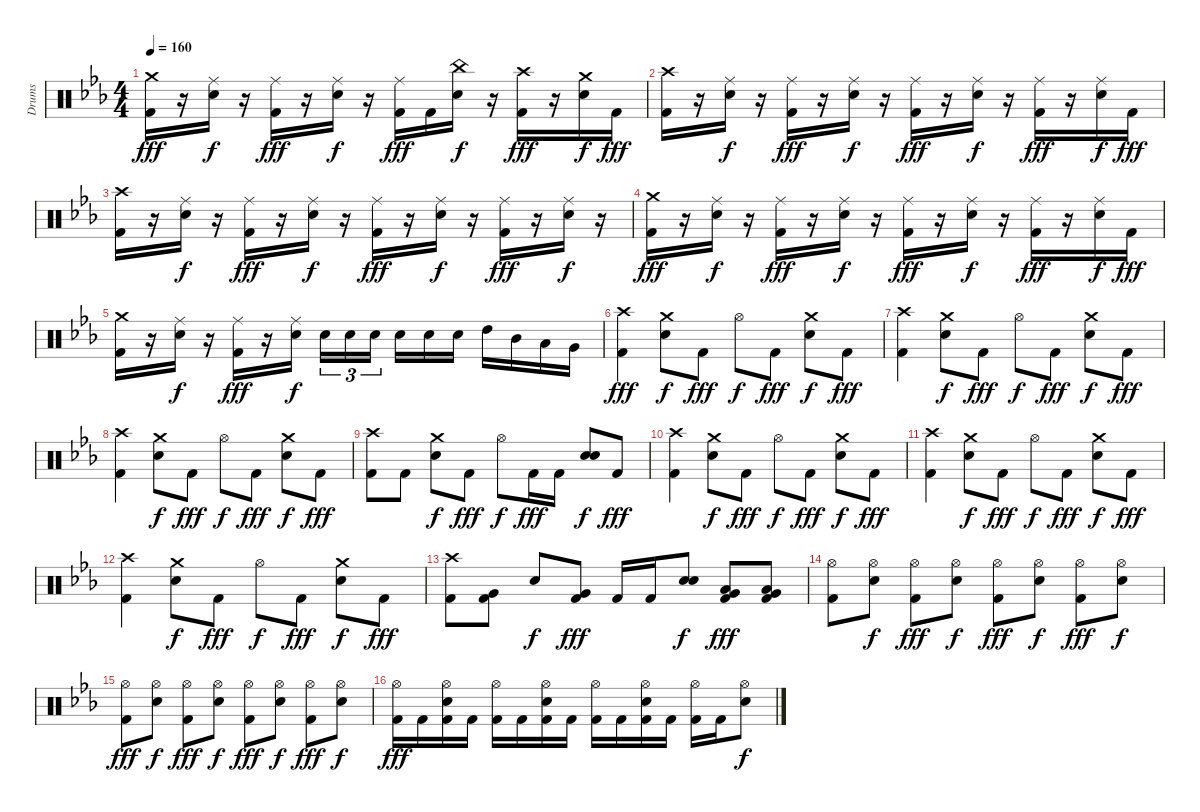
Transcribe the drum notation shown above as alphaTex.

\track ("Drums" "Drums") {instrument percussion}
\staff {score}
\articulation defaults
\ts (4 4)
\tempo 160
\clef neutral
\ks eb
("Crash medium (hit)" "Kick (hit) 2").16{dy fff} r.16 ("Ride (middle)" "Electric Snare (hit)").16{dy f} r.16 ("Ride (middle)" "Kick (hit) 2").16{dy fff} r.16 ("Ride (middle)" "Electric Snare (hit)").16{dy f} r.16 ("Ride (middle)" "Kick (hit) 2").16{dy fff} "Kick (hit) 2".16 ("China (hit)" "Electric Snare (hit)").16{dy f} r.16 ("Crash high (hit)" "Kick (hit) 2").16{dy fff} r.16 ("Crash medium (hit)" "Electric Snare (hit)").16{dy f} "Kick (hit) 2".16{dy fff} |
("Crash high (hit)" "Kick (hit) 2").16 r.16 ("Ride (middle)" "Electric Snare (hit)").16{dy f} r.16 ("Ride (middle)" "Kick (hit) 2").16{dy fff} r.16 ("Ride (middle)" "Electric Snare (hit)").16{dy f} r.16 ("Ride (middle)" "Kick (hit) 2").16{dy fff} r.16 ("Ride (middle)" "Electric Snare (hit)").16{dy f} r.16 ("Ride (middle)" "Kick (hit) 2").16{dy fff} r.16 ("Ride (middle)" "Electric Snare (hit)").16{dy f} "Kick (hit) 2".16{dy fff} |
("Crash high (hit)" "Kick (hit) 2").16 r.16 ("Ride (middle)" "Electric Snare (hit)").16{dy f} r.16 ("Ride (middle)" "Kick (hit) 2").16{dy fff} r.16 ("Ride (middle)" "Electric Snare (hit)").16{dy f} r.16 ("Ride (middle)" "Kick (hit) 2").16{dy fff} r.16 ("Ride (middle)" "Electric Snare (hit)").16{dy f} r.16 ("Ride (middle)" "Kick (hit) 2").16{dy fff} r.16 ("Ride (middle)" "Electric Snare (hit)").16{dy f} r.16 |
("Crash medium (hit)" "Kick (hit) 2").16{dy fff} r.16 ("Ride (middle)" "Electric Snare (hit)").16{dy f} r.16 ("Ride (middle)" "Kick (hit) 2").16{dy fff} r.16 ("Ride (middle)" "Electric Snare (hit)").16{dy f} r.16 ("Ride (middle)" "Kick (hit) 2").16{dy fff} r.16 ("Ride (middle)" "Electric Snare (hit)").16{dy f} r.16 ("Ride (middle)" "Kick (hit) 2").16{dy fff} r.16 ("Ride (middle)" "Electric Snare (hit)").16{dy f} "Kick (hit) 2".16{dy fff} |
("Crash medium (hit)" "Kick (hit) 2").16 r.16 ("Ride (middle)" "Electric Snare (hit)").16{dy f} r.16 ("Ride (middle)" "Kick (hit) 2").16{dy fff} r.16 ("Ride (middle)" "Electric Snare (hit)").16{dy f} "Electric Snare (hit)".16{tu (3 2)} "Electric Snare (hit)".16{tu (3 2)} "Electric Snare (hit)".16{tu (3 2)} "Electric Snare (hit)".16 "Electric Snare (hit)".16 "Electric Snare (hit)".16 "High Tom (hit)".16 "Mid Tom (hit)".16 "Low Tom (hit)".16 "Very Low Tom (hit)".16 |
("Crash high (hit)" "Kick (hit) 2").4{dy fff} ("Crash medium (hit)" "Electric Snare (hit)").8{dy f} "Kick (hit) 2".8{dy fff} "Hi-Hat (open)".8{dy f} "Kick (hit) 2".8{dy fff} ("Crash medium (hit)" "Electric Snare (hit)").8{dy f} "Kick (hit) 2".8{dy fff} |
("Crash high (hit)" "Kick (hit) 2").4 ("Crash medium (hit)" "Electric Snare (hit)").8{dy f} "Kick (hit) 2".8{dy fff} "Hi-Hat (open)".8{dy f} "Kick (hit) 2".8{dy fff} ("Crash medium (hit)" "Electric Snare (hit)").8{dy f} "Kick (hit) 2".8{dy fff} |
("Crash high (hit)" "Kick (hit) 2").4 ("Crash medium (hit)" "Electric Snare (hit)").8{dy f} "Kick (hit) 2".8{dy fff} "Hi-Hat (open)".8{dy f} "Kick (hit) 2".8{dy fff} ("Crash medium (hit)" "Electric Snare (hit)").8{dy f} "Kick (hit) 2".8{dy fff} |
("Crash high (hit)" "Kick (hit) 2").8 "Kick (hit) 2".8 ("Crash medium (hit)" "Electric Snare (hit)").8{dy f} "Kick (hit) 2".8{dy fff} "Hi-Hat (open)".8{dy f} "Kick (hit) 2".16{dy fff} "Kick (hit) 2".16 ("Electric Snare (hit)" "Electric Snare (hit)").8{bd 60 dy f} "Kick (hit) 2".8{dy fff} |
("Crash high (hit)" "Kick (hit) 2").4 ("Crash medium (hit)" "Electric Snare (hit)").8{dy f} "Kick (hit) 2".8{dy fff} "Hi-Hat (open)".8{dy f} "Kick (hit) 2".8{dy fff} ("Crash medium (hit)" "Electric Snare (hit)").8{dy f} "Kick (hit) 2".8{dy fff} |
("Crash high (hit)" "Kick (hit) 2").4 ("Crash medium (hit)" "Electric Snare (hit)").8{dy f} "Kick (hit) 2".8{dy fff} "Hi-Hat (open)".8{dy f} "Kick (hit) 2".8{dy fff} ("Crash medium (hit)" "Electric Snare (hit)").8{dy f} "Kick (hit) 2".8{dy fff} |
("Crash high (hit)" "Kick (hit) 2").4 ("Crash medium (hit)" "Electric Snare (hit)").8{dy f} "Kick (hit) 2".8{dy fff} "Hi-Hat (open)".8{dy f} "Kick (hit) 2".8{dy fff} ("Crash medium (hit)" "Electric Snare (hit)").8{dy f} "Kick (hit) 2".8{dy fff} |
("Crash high (hit)" "Kick (hit) 2").8 ("Very Low Tom (hit)" "Kick (hit) 2").8 "Electric Snare (hit)".8{dy f} ("Very Low Tom (hit)" "Kick (hit) 2").8{dy fff} "Kick (hit) 2".16 "Kick (hit) 2".16 ("Electric Snare (hit)" "Electric Snare (hit)").8{dy f} ("Low Tom (hit)" "Very Low Tom (hit)" "Kick (hit) 2").8{dy fff} ("Low Tom (hit)" "Very Low Tom (hit)" "Kick (hit) 2").8 |
("Hi-Hat (open)" "Kick (hit) 2").8 ("Hi-Hat (open)" "Electric Snare (hit)").8{dy f} ("Hi-Hat (open)" "Kick (hit) 2").8{dy fff} ("Hi-Hat (open)" "Electric Snare (hit)").8{dy f} ("Hi-Hat (open)" "Kick (hit) 2").8{dy fff} ("Hi-Hat (open)" "Electric Snare (hit)").8{dy f} ("Hi-Hat (open)" "Kick (hit) 2").8{dy fff} ("Hi-Hat (open)" "Electric Snare (hit)").8{dy f} |
("Hi-Hat (open)" "Kick (hit) 2").8{dy fff} ("Hi-Hat (open)" "Electric Snare (hit)").8{dy f} ("Hi-Hat (open)" "Kick (hit) 2").8{dy fff} ("Hi-Hat (open)" "Electric Snare (hit)").8{dy f} ("Hi-Hat (open)" "Kick (hit) 2").8{dy fff} ("Hi-Hat (open)" "Electric Snare (hit)").8{dy f} ("Hi-Hat (open)" "Kick (hit) 2").8{dy fff} ("Hi-Hat (open)" "Electric Snare (hit)").8{dy f} |
("Hi-Hat (open)" "Kick (hit) 2").16{dy fff} "Kick (hit) 2".16 ("Hi-Hat (open)" "Electric Snare (hit)" "Kick (hit) 2").16 "Kick (hit) 2".16 ("Hi-Hat (open)" "Kick (hit) 2").16 "Kick (hit) 2".16 ("Hi-Hat (open)" "Electric Snare (hit)" "Kick (hit) 2").16 "Kick (hit) 2".16 ("Hi-Hat (open)" "Kick (hit) 2").16 "Kick (hit) 2".16 ("Hi-Hat (open)" "Electric Snare (hit)" "Kick (hit) 2").16 "Kick (hit) 2".16 ("Hi-Hat (open)" "Kick (hit) 2").16 "Kick (hit) 2".16 ("Hi-Hat (open)" "Electric Snare (hit)").8{dy f}
